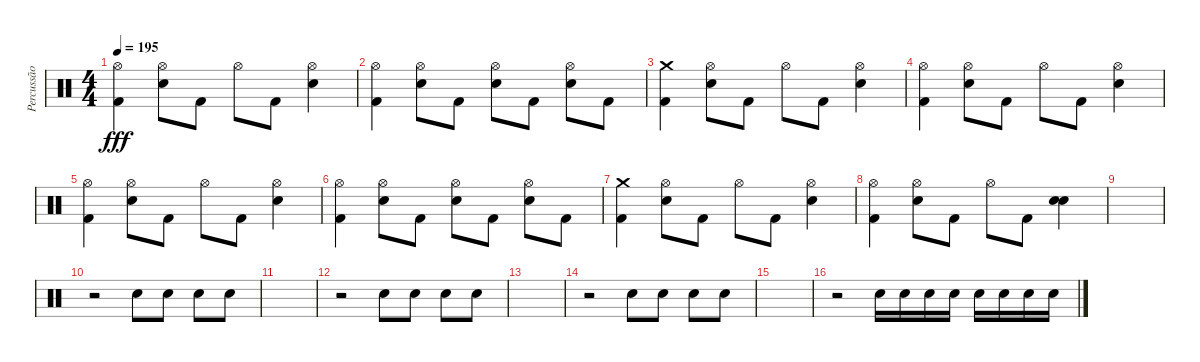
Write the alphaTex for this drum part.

\track ("Percussão" "Percussão") {instrument percussion}
\staff {score}
\articulation defaults
\ts (4 4)
\tempo 195
\clef neutral
\ks c
("Hi-Hat (open)" "Kick (hit) 2").4{dy fff} ("Hi-Hat (open)" "Electric Snare (hit)").8 "Kick (hit) 2".8 "Hi-Hat (open)".8 "Kick (hit) 2".8 ("Hi-Hat (open)" "Electric Snare (hit)").4 |
("Hi-Hat (open)" "Kick (hit) 2").4 ("Hi-Hat (open)" "Electric Snare (hit)").8 "Kick (hit) 2".8 ("Hi-Hat (open)" "Electric Snare (hit)").8 "Kick (hit) 2".8 ("Hi-Hat (open)" "Electric Snare (hit)").8 "Kick (hit) 2".8 |
("Crash medium (hit)" "Kick (hit) 2").4 ("Hi-Hat (open)" "Electric Snare (hit)").8 "Kick (hit) 2".8 "Hi-Hat (open)".8 "Kick (hit) 2".8 ("Hi-Hat (open)" "Electric Snare (hit)").4 |
("Hi-Hat (open)" "Kick (hit) 2").4 ("Hi-Hat (open)" "Electric Snare (hit)").8 "Kick (hit) 2".8 "Hi-Hat (open)".8 "Kick (hit) 2".8 ("Hi-Hat (open)" "Electric Snare (hit)").4 |
("Hi-Hat (open)" "Kick (hit) 2").4 ("Hi-Hat (open)" "Electric Snare (hit)").8 "Kick (hit) 2".8 "Hi-Hat (open)".8 "Kick (hit) 2".8 ("Hi-Hat (open)" "Electric Snare (hit)").4 |
("Hi-Hat (open)" "Kick (hit) 2").4 ("Hi-Hat (open)" "Electric Snare (hit)").8 "Kick (hit) 2".8 ("Hi-Hat (open)" "Electric Snare (hit)").8 "Kick (hit) 2".8 ("Hi-Hat (open)" "Electric Snare (hit)").8 "Kick (hit) 2".8 |
("Crash medium (hit)" "Kick (hit) 2").4 ("Hi-Hat (open)" "Electric Snare (hit)").8 "Kick (hit) 2".8 "Hi-Hat (open)".8 "Kick (hit) 2".8 ("Hi-Hat (open)" "Electric Snare (hit)").4 |
("Hi-Hat (open)" "Kick (hit) 2").4 ("Hi-Hat (open)" "Electric Snare (hit)").8 "Kick (hit) 2".8 "Hi-Hat (open)".8 "Kick (hit) 2".8 ("Electric Snare (hit)" "Electric Snare (hit)").4{bd 240} |
|
r.2 "Electric Snare (hit)".8 "Electric Snare (hit)".8 "Electric Snare (hit)".8 "Electric Snare (hit)".8 |
|
r.2 "Electric Snare (hit)".8 "Electric Snare (hit)".8 "Electric Snare (hit)".8 "Electric Snare (hit)".8 |
|
r.2 "Electric Snare (hit)".8 "Electric Snare (hit)".8 "Electric Snare (hit)".8 "Electric Snare (hit)".8 |
|
r.2 "Electric Snare (hit)".16 "Electric Snare (hit)".16 "Electric Snare (hit)".16 "Electric Snare (hit)".16 "Electric Snare (hit)".16 "Electric Snare (hit)".16 "Electric Snare (hit)".16 "Electric Snare (hit)".16
